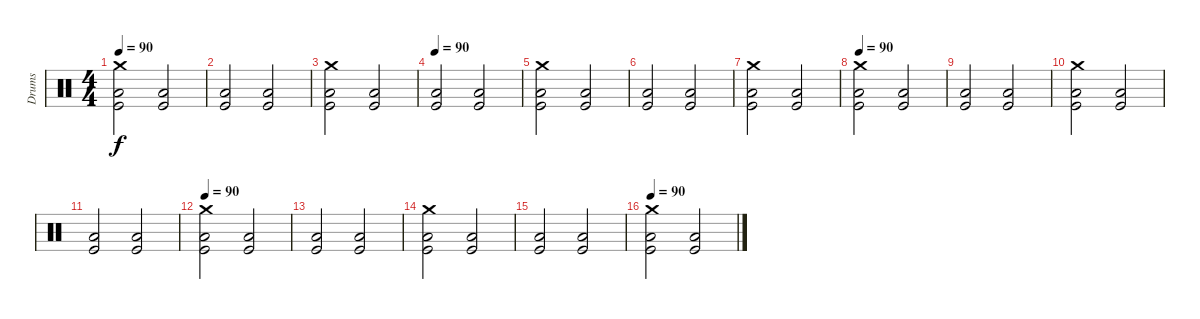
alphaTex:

\track ("Drums" "Drums") {instrument percussion}
\staff {score}
\articulation defaults
\ts (4 4)
\tempo 90
\clef neutral
\ks c
("Crash medium (hit)" "Low Floor Tom (hit)" "Kick (hit)").2{dy f} ("Low Floor Tom (hit)" "Kick (hit)").2 |
("Low Floor Tom (hit)" "Kick (hit)").2 ("Low Floor Tom (hit)" "Kick (hit)").2 |
("Crash medium (hit)" "Low Floor Tom (hit)" "Kick (hit)").2 ("Low Floor Tom (hit)" "Kick (hit)").2 |
\tempo 90
("Low Floor Tom (hit)" "Kick (hit)").2 ("Low Floor Tom (hit)" "Kick (hit)").2 |
("Crash medium (hit)" "Low Floor Tom (hit)" "Kick (hit)").2 ("Low Floor Tom (hit)" "Kick (hit)").2 |
("Low Floor Tom (hit)" "Kick (hit)").2 ("Low Floor Tom (hit)" "Kick (hit)").2 |
("Crash medium (hit)" "Low Floor Tom (hit)" "Kick (hit)").2 ("Low Floor Tom (hit)" "Kick (hit)").2 |
\tempo 90
("Crash medium (hit)" "Low Floor Tom (hit)" "Kick (hit)").2{volume 7} ("Low Floor Tom (hit)" "Kick (hit)").2 |
("Low Floor Tom (hit)" "Kick (hit)").2 ("Low Floor Tom (hit)" "Kick (hit)").2 |
("Crash medium (hit)" "Low Floor Tom (hit)" "Kick (hit)").2 ("Low Floor Tom (hit)" "Kick (hit)").2 |
("Low Floor Tom (hit)" "Kick (hit)").2 ("Low Floor Tom (hit)" "Kick (hit)").2 |
\tempo 90
("Crash medium (hit)" "Low Floor Tom (hit)" "Kick (hit)").2 ("Low Floor Tom (hit)" "Kick (hit)").2 |
("Low Floor Tom (hit)" "Kick (hit)").2{volume 5} ("Low Floor Tom (hit)" "Kick (hit)").2 |
("Crash medium (hit)" "Low Floor Tom (hit)" "Kick (hit)").2 ("Low Floor Tom (hit)" "Kick (hit)").2 |
("Low Floor Tom (hit)" "Kick (hit)").2 ("Low Floor Tom (hit)" "Kick (hit)").2 |
\tempo 90
("Crash medium (hit)" "Low Floor Tom (hit)" "Kick (hit)").2 ("Low Floor Tom (hit)" "Kick (hit)").2
